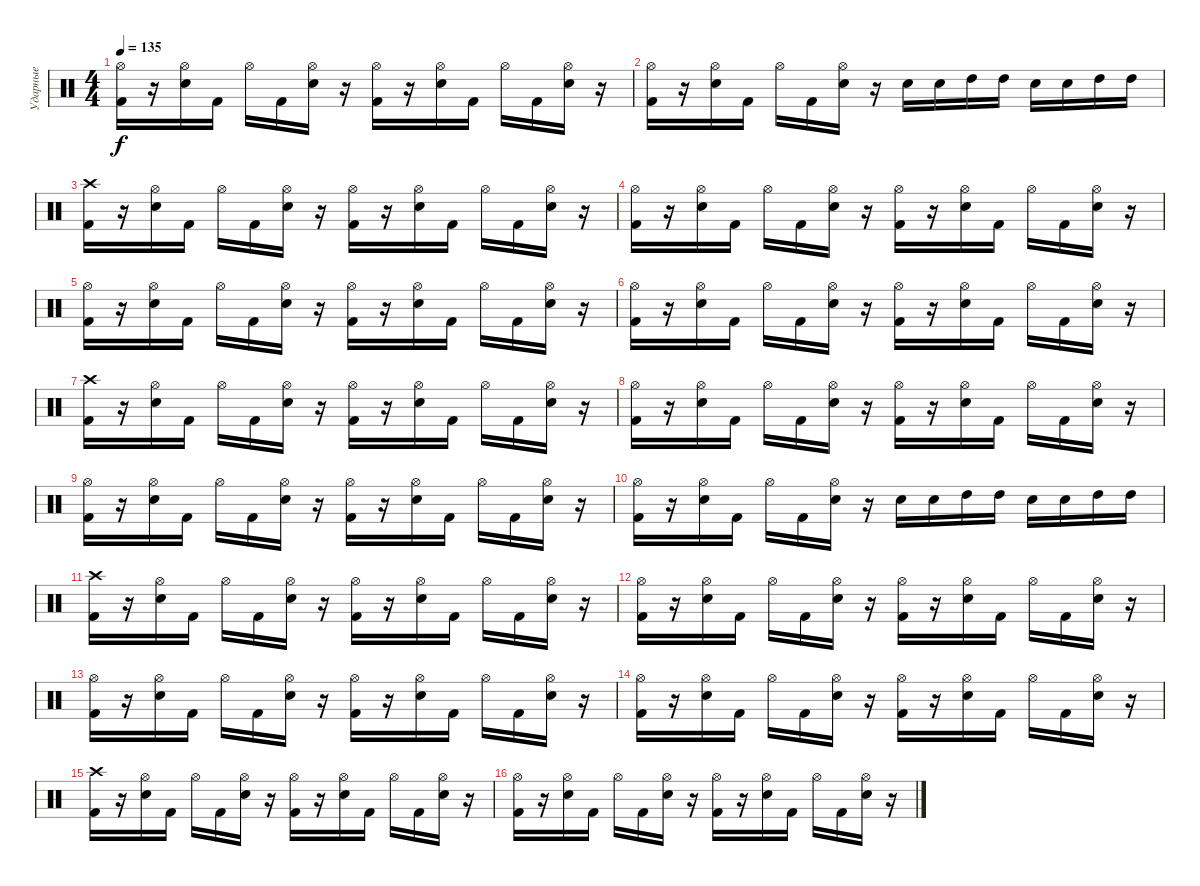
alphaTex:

\track ("Ударные" "Ударные") {instrument percussion}
\staff {score}
\articulation defaults
\ts (4 4)
\tempo 135
\clef neutral
\ks c
("Hi-Hat (open)" "Kick (hit) 2").16{dy f} r.16 ("Hi-Hat (open)" "Electric Snare (hit)").16 "Kick (hit) 2".16 "Hi-Hat (open)".16 "Kick (hit) 2".16 ("Hi-Hat (open)" "Electric Snare (hit)").16 r.16 ("Hi-Hat (open)" "Kick (hit) 2").16 r.16 ("Hi-Hat (open)" "Electric Snare (hit)").16 "Kick (hit) 2".16 "Hi-Hat (open)".16 "Kick (hit) 2".16 ("Hi-Hat (open)" "Electric Snare (hit)").16 r.16 |
("Hi-Hat (open)" "Kick (hit) 2").16 r.16 ("Hi-Hat (open)" "Electric Snare (hit)").16 "Kick (hit) 2".16 "Hi-Hat (open)".16 "Kick (hit) 2".16 ("Hi-Hat (open)" "Electric Snare (hit)").16 r.16 "Electric Snare (hit)".16 "Electric Snare (hit)".16 "High Tom (hit)".16 "High Tom (hit)".16 "Electric Snare (hit)".16 "Electric Snare (hit)".16 "High Tom (hit)".16 "High Tom (hit)".16 |
("Crash high (hit)" "Kick (hit) 2").16 r.16 ("Hi-Hat (open)" "Electric Snare (hit)").16 "Kick (hit) 2".16 "Hi-Hat (open)".16 "Kick (hit) 2".16 ("Hi-Hat (open)" "Electric Snare (hit)").16 r.16 ("Hi-Hat (open)" "Kick (hit) 2").16 r.16 ("Hi-Hat (open)" "Electric Snare (hit)").16 "Kick (hit) 2".16 "Hi-Hat (open)".16 "Kick (hit) 2".16 ("Hi-Hat (open)" "Electric Snare (hit)").16 r.16 |
("Hi-Hat (open)" "Kick (hit) 2").16 r.16 ("Hi-Hat (open)" "Electric Snare (hit)").16 "Kick (hit) 2".16 "Hi-Hat (open)".16 "Kick (hit) 2".16 ("Hi-Hat (open)" "Electric Snare (hit)").16 r.16 ("Hi-Hat (open)" "Kick (hit) 2").16 r.16 ("Hi-Hat (open)" "Electric Snare (hit)").16 "Kick (hit) 2".16 "Hi-Hat (open)".16 "Kick (hit) 2".16 ("Hi-Hat (open)" "Electric Snare (hit)").16 r.16 |
("Hi-Hat (open)" "Kick (hit) 2").16 r.16 ("Hi-Hat (open)" "Electric Snare (hit)").16 "Kick (hit) 2".16 "Hi-Hat (open)".16 "Kick (hit) 2".16 ("Hi-Hat (open)" "Electric Snare (hit)").16 r.16 ("Hi-Hat (open)" "Kick (hit) 2").16 r.16 ("Hi-Hat (open)" "Electric Snare (hit)").16 "Kick (hit) 2".16 "Hi-Hat (open)".16 "Kick (hit) 2".16 ("Hi-Hat (open)" "Electric Snare (hit)").16 r.16 |
("Hi-Hat (open)" "Kick (hit) 2").16 r.16 ("Hi-Hat (open)" "Electric Snare (hit)").16 "Kick (hit) 2".16 "Hi-Hat (open)".16 "Kick (hit) 2".16 ("Hi-Hat (open)" "Electric Snare (hit)").16 r.16 ("Hi-Hat (open)" "Kick (hit) 2").16 r.16 ("Hi-Hat (open)" "Electric Snare (hit)").16 "Kick (hit) 2".16 "Hi-Hat (open)".16 "Kick (hit) 2".16 ("Hi-Hat (open)" "Electric Snare (hit)").16 r.16 |
("Crash high (hit)" "Kick (hit) 2").16 r.16 ("Hi-Hat (open)" "Electric Snare (hit)").16 "Kick (hit) 2".16 "Hi-Hat (open)".16 "Kick (hit) 2".16 ("Hi-Hat (open)" "Electric Snare (hit)").16 r.16 ("Hi-Hat (open)" "Kick (hit) 2").16 r.16 ("Hi-Hat (open)" "Electric Snare (hit)").16 "Kick (hit) 2".16 "Hi-Hat (open)".16 "Kick (hit) 2".16 ("Hi-Hat (open)" "Electric Snare (hit)").16 r.16 |
("Hi-Hat (open)" "Kick (hit) 2").16 r.16 ("Hi-Hat (open)" "Electric Snare (hit)").16 "Kick (hit) 2".16 "Hi-Hat (open)".16 "Kick (hit) 2".16 ("Hi-Hat (open)" "Electric Snare (hit)").16 r.16 ("Hi-Hat (open)" "Kick (hit) 2").16 r.16 ("Hi-Hat (open)" "Electric Snare (hit)").16 "Kick (hit) 2".16 "Hi-Hat (open)".16 "Kick (hit) 2".16 ("Hi-Hat (open)" "Electric Snare (hit)").16 r.16 |
("Hi-Hat (open)" "Kick (hit) 2").16 r.16 ("Hi-Hat (open)" "Electric Snare (hit)").16 "Kick (hit) 2".16 "Hi-Hat (open)".16 "Kick (hit) 2".16 ("Hi-Hat (open)" "Electric Snare (hit)").16 r.16 ("Hi-Hat (open)" "Kick (hit) 2").16 r.16 ("Hi-Hat (open)" "Electric Snare (hit)").16 "Kick (hit) 2".16 "Hi-Hat (open)".16 "Kick (hit) 2".16 ("Hi-Hat (open)" "Electric Snare (hit)").16 r.16 |
("Hi-Hat (open)" "Kick (hit) 2").16 r.16 ("Hi-Hat (open)" "Electric Snare (hit)").16 "Kick (hit) 2".16 "Hi-Hat (open)".16 "Kick (hit) 2".16 ("Hi-Hat (open)" "Electric Snare (hit)").16 r.16 "Electric Snare (hit)".16 "Electric Snare (hit)".16 "High Tom (hit)".16 "High Tom (hit)".16 "Electric Snare (hit)".16 "Electric Snare (hit)".16 "High Tom (hit)".16 "High Tom (hit)".16 |
("Crash high (hit)" "Kick (hit) 2").16 r.16 ("Hi-Hat (open)" "Electric Snare (hit)").16 "Kick (hit) 2".16 "Hi-Hat (open)".16 "Kick (hit) 2".16 ("Hi-Hat (open)" "Electric Snare (hit)").16 r.16 ("Hi-Hat (open)" "Kick (hit) 2").16 r.16 ("Hi-Hat (open)" "Electric Snare (hit)").16 "Kick (hit) 2".16 "Hi-Hat (open)".16 "Kick (hit) 2".16 ("Hi-Hat (open)" "Electric Snare (hit)").16 r.16 |
("Hi-Hat (open)" "Kick (hit) 2").16 r.16 ("Hi-Hat (open)" "Electric Snare (hit)").16 "Kick (hit) 2".16 "Hi-Hat (open)".16 "Kick (hit) 2".16 ("Hi-Hat (open)" "Electric Snare (hit)").16 r.16 ("Hi-Hat (open)" "Kick (hit) 2").16 r.16 ("Hi-Hat (open)" "Electric Snare (hit)").16 "Kick (hit) 2".16 "Hi-Hat (open)".16 "Kick (hit) 2".16 ("Hi-Hat (open)" "Electric Snare (hit)").16 r.16 |
("Hi-Hat (open)" "Kick (hit) 2").16 r.16 ("Hi-Hat (open)" "Electric Snare (hit)").16 "Kick (hit) 2".16 "Hi-Hat (open)".16 "Kick (hit) 2".16 ("Hi-Hat (open)" "Electric Snare (hit)").16 r.16 ("Hi-Hat (open)" "Kick (hit) 2").16 r.16 ("Hi-Hat (open)" "Electric Snare (hit)").16 "Kick (hit) 2".16 "Hi-Hat (open)".16 "Kick (hit) 2".16 ("Hi-Hat (open)" "Electric Snare (hit)").16 r.16 |
("Hi-Hat (open)" "Kick (hit) 2").16 r.16 ("Hi-Hat (open)" "Electric Snare (hit)").16 "Kick (hit) 2".16 "Hi-Hat (open)".16 "Kick (hit) 2".16 ("Hi-Hat (open)" "Electric Snare (hit)").16 r.16 ("Hi-Hat (open)" "Kick (hit) 2").16 r.16 ("Hi-Hat (open)" "Electric Snare (hit)").16 "Kick (hit) 2".16 "Hi-Hat (open)".16 "Kick (hit) 2".16 ("Hi-Hat (open)" "Electric Snare (hit)").16 r.16 |
("Crash high (hit)" "Kick (hit) 2").16 r.16 ("Hi-Hat (open)" "Electric Snare (hit)").16 "Kick (hit) 2".16 "Hi-Hat (open)".16 "Kick (hit) 2".16 ("Hi-Hat (open)" "Electric Snare (hit)").16 r.16 ("Hi-Hat (open)" "Kick (hit) 2").16 r.16 ("Hi-Hat (open)" "Electric Snare (hit)").16 "Kick (hit) 2".16 "Hi-Hat (open)".16 "Kick (hit) 2".16 ("Hi-Hat (open)" "Electric Snare (hit)").16 r.16 |
("Hi-Hat (open)" "Kick (hit) 2").16 r.16 ("Hi-Hat (open)" "Electric Snare (hit)").16 "Kick (hit) 2".16 "Hi-Hat (open)".16 "Kick (hit) 2".16 ("Hi-Hat (open)" "Electric Snare (hit)").16 r.16 ("Hi-Hat (open)" "Kick (hit) 2").16 r.16 ("Hi-Hat (open)" "Electric Snare (hit)").16 "Kick (hit) 2".16 "Hi-Hat (open)".16 "Kick (hit) 2".16 ("Hi-Hat (open)" "Electric Snare (hit)").16 r.16
